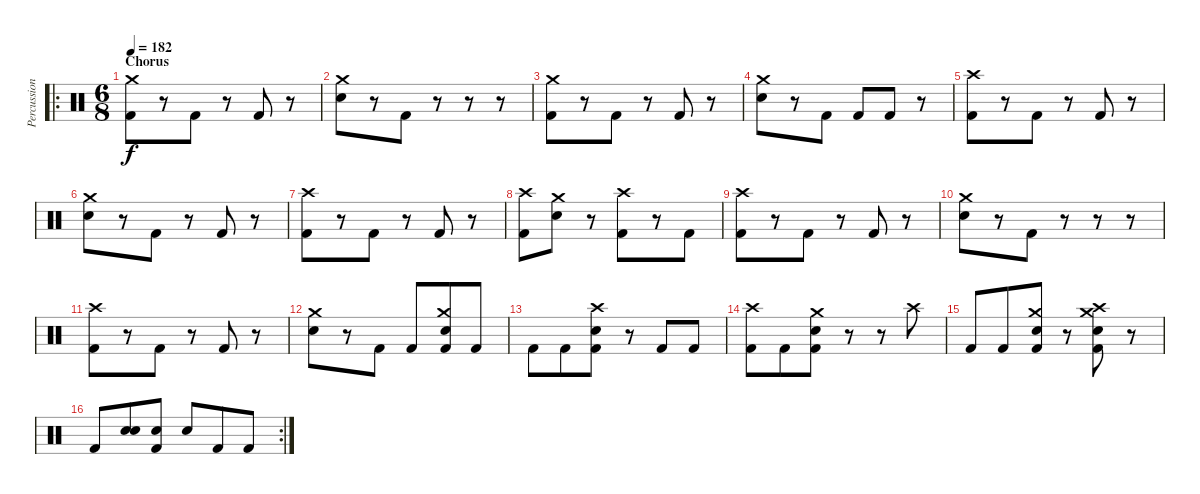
\track ("Percussion" "Percussion") {instrument percussion}
\staff {score}
\articulation defaults
\ro
\ts (6 8)
\section ("" "Chorus")
\tempo 182
\clef neutral
\ks c
("Kick (hit) 2" "Crash medium (hit)").8{dy f} r.8 "Kick (hit) 2".8 r.8 "Kick (hit) 2".8 r.8 |
("Snare (hit) 2" "Crash medium (hit)").8 r.8 "Kick (hit) 2".8 r.8 r.8 r.8 |
("Kick (hit) 2" "Crash medium (hit)").8 r.8 "Kick (hit) 2".8 r.8 "Kick (hit) 2".8 r.8 |
("Snare (hit) 2" "Crash medium (hit)").8 r.8 "Kick (hit) 2".8 "Kick (hit) 2".8 "Kick (hit) 2".8 r.8 |
("Kick (hit) 2" "Crash high (hit)").8 r.8 "Kick (hit) 2".8 r.8 "Kick (hit) 2".8 r.8 |
("Snare (hit) 2" "Crash medium (hit)").8 r.8 "Kick (hit) 2".8 r.8 "Kick (hit) 2".8 r.8 |
("Kick (hit) 2" "Crash high (hit)").8 r.8 "Kick (hit) 2".8 r.8 "Kick (hit) 2".8 r.8 |
("Kick (hit) 2" "Crash high (hit)").8 ("Snare (hit) 2" "Crash medium (hit)").8 r.8 ("Kick (hit) 2" "Crash high (hit)").8 r.8 "Kick (hit) 2".8 |
("Kick (hit) 2" "Crash high (hit)").8 r.8 "Kick (hit) 2".8 r.8 "Kick (hit) 2".8 r.8 |
("Snare (hit) 2" "Crash medium (hit)").8 r.8 "Kick (hit) 2".8 r.8 r.8 r.8 |
("Kick (hit) 2" "Crash high (hit)").8 r.8 "Kick (hit) 2".8 r.8 "Kick (hit) 2".8 r.8 |
("Snare (hit) 2" "Crash medium (hit)").8 r.8 "Kick (hit) 2".8 "Kick (hit) 2".8 ("Kick (hit) 2" "Snare (hit) 2" "Crash medium (hit)").8 "Kick (hit) 2".8 |
"Kick (hit) 2".8 "Kick (hit) 2".8 ("Kick (hit) 2" "Snare (hit) 2" "Crash high (hit)").8 r.8 "Kick (hit) 2".8 "Kick (hit) 2".8 |
("Kick (hit) 2" "Crash high (hit)").8 "Kick (hit) 2".8 ("Kick (hit) 2" "Snare (hit) 2" "Crash medium (hit)").8 r.8 r.8 "Crash high (hit)".8 |
"Kick (hit) 2".8 "Kick (hit) 2".8 ("Kick (hit) 2" "Snare (hit) 2" "Crash medium (hit)").8 r.8 ("Kick (hit) 2" "Snare (hit) 2" "Crash high (hit)" "Crash medium (hit)").8 r.8 |
\rc 2 "Kick (hit) 2".8
("Snare (hit) 2" "Snare (hit) 2").8 ("Kick (hit) 2" "Snare (hit) 2").8 "Snare (hit) 2".8 "Kick (hit) 2".8 "Kick (hit) 2".8
